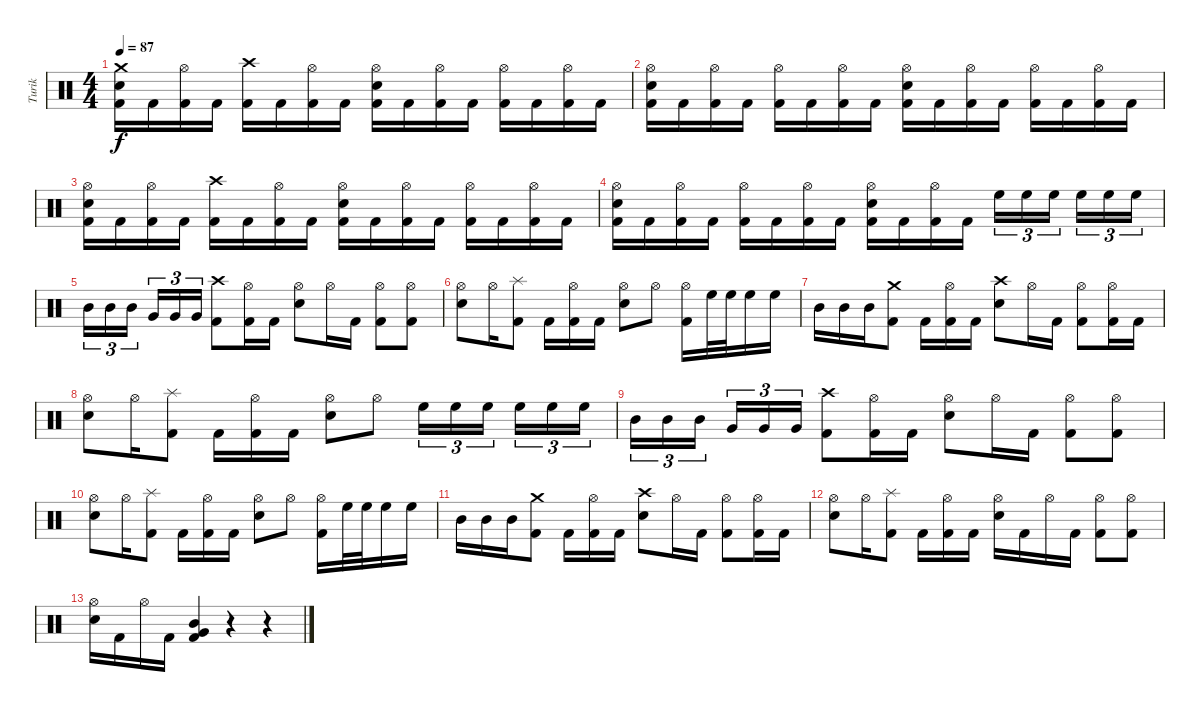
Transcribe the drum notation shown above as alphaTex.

\track ("Turik" "Turik") {instrument percussion}
\staff {score}
\articulation defaults
\ts (4 4)
\tempo 87
\clef neutral
\ks c
("Crash medium (hit)" "Snare (hit) 2" "Kick (hit) 2").16{dy f} "Kick (hit) 2".16 ("Hi-Hat (open)" "Kick (hit) 2").16 "Kick (hit) 2".16 ("Crash high (hit)" "Kick (hit) 2").16 "Kick (hit) 2".16 ("Hi-Hat (open)" "Kick (hit) 2").16 "Kick (hit) 2".16 ("Hi-Hat (open)" "Snare (hit) 2" "Kick (hit) 2").16 "Kick (hit) 2".16 ("Hi-Hat (open)" "Kick (hit) 2").16 "Kick (hit) 2".16 ("Hi-Hat (open)" "Kick (hit) 2").16 "Kick (hit) 2".16 ("Hi-Hat (open)" "Kick (hit) 2").16 "Kick (hit) 2".16 |
("Hi-Hat (open)" "Snare (hit) 2" "Kick (hit) 2").16 "Kick (hit) 2".16 ("Hi-Hat (open)" "Kick (hit) 2").16 "Kick (hit) 2".16 ("Hi-Hat (open)" "Kick (hit) 2").16 "Kick (hit) 2".16 ("Hi-Hat (open)" "Kick (hit) 2").16 "Kick (hit) 2".16 ("Hi-Hat (open)" "Snare (hit) 2" "Kick (hit) 2").16 "Kick (hit) 2".16 ("Hi-Hat (open)" "Kick (hit) 2").16 "Kick (hit) 2".16 ("Hi-Hat (open)" "Kick (hit) 2").16 "Kick (hit) 2".16 ("Hi-Hat (open)" "Kick (hit) 2").16 "Kick (hit) 2".16 |
("Hi-Hat (open)" "Snare (hit) 2" "Kick (hit) 2").16 "Kick (hit) 2".16 ("Hi-Hat (open)" "Kick (hit) 2").16 "Kick (hit) 2".16 ("Crash high (hit)" "Kick (hit) 2").16 "Kick (hit) 2".16 ("Hi-Hat (open)" "Kick (hit) 2").16 "Kick (hit) 2".16 ("Hi-Hat (open)" "Snare (hit) 2" "Kick (hit) 2").16 "Kick (hit) 2".16 ("Hi-Hat (open)" "Kick (hit) 2").16 "Kick (hit) 2".16 ("Hi-Hat (open)" "Kick (hit) 2").16 "Kick (hit) 2".16 ("Hi-Hat (open)" "Kick (hit) 2").16 "Kick (hit) 2".16 |
("Hi-Hat (open)" "Snare (hit) 2" "Kick (hit) 2").16 "Kick (hit) 2".16 ("Hi-Hat (open)" "Kick (hit) 2").16 "Kick (hit) 2".16 ("Hi-Hat (open)" "Kick (hit) 2").16 "Kick (hit) 2".16 ("Hi-Hat (open)" "Kick (hit) 2").16 "Kick (hit) 2".16 ("Hi-Hat (open)" "Snare (hit) 2" "Kick (hit) 2").16 "Kick (hit) 2".16 ("Hi-Hat (open)" "Kick (hit) 2").16 "Kick (hit) 2".16 "High Floor Tom (hit)".16{tu (3 2)} "High Floor Tom (hit)".16{tu (3 2)} "High Floor Tom (hit)".16{tu (3 2) beam splitsecondary} "High Floor Tom (hit)".16{tu (3 2)} "High Floor Tom (hit)".16{tu (3 2)} "High Floor Tom (hit)".16{tu (3 2)} |
"Mid Tom (hit)".16{tu (3 2)} "Mid Tom (hit)".16{tu (3 2)} "Mid Tom (hit)".16{tu (3 2) beam splitsecondary} "Very Low Tom (hit)".16{tu (3 2)} "Very Low Tom (hit)".16{tu (3 2)} "Very Low Tom (hit)".16{tu (3 2)} ("Crash high (hit)" "Kick (hit) 2").8 ("Hi-Hat (open)" "Kick (hit) 2").16 "Kick (hit) 2".16 ("Hi-Hat (open)" "Snare (hit) 2").8 "Hi-Hat (open)".16 "Kick (hit) 2".16 ("Hi-Hat (open)" "Kick (hit) 2").8 ("Hi-Hat (open)" "Kick (hit) 2").8 |
("Hi-Hat (open)" "Snare (hit) 2").8 "Hi-Hat (open)".16 ("Splash (hit)" "Kick (hit) 2").8 "Kick (hit) 2".16 ("Hi-Hat (open)" "Kick (hit) 2").16 "Kick (hit) 2".16 ("Hi-Hat (open)" "Snare (hit) 2").8 "Hi-Hat (open)".8 ("Hi-Hat (open)" "Kick (hit) 2").16 "High Floor Tom (hit)".32 "High Floor Tom (hit)".32 "High Floor Tom (hit)".16 "High Floor Tom (hit)".16 |
"Mid Tom (hit)".16 "Mid Tom (hit)".16 "Mid Tom (hit)".16 ("Crash medium (hit)" "Kick (hit) 2").8 "Kick (hit) 2".16 ("Hi-Hat (open)" "Kick (hit) 2").16 "Kick (hit) 2".16 ("Crash high (hit)" "Snare (hit) 2").8 "Hi-Hat (open)".16 "Kick (hit) 2".16 ("Hi-Hat (open)" "Kick (hit) 2").8 ("Hi-Hat (open)" "Kick (hit) 2").16 "Kick (hit) 2".16 |
("Hi-Hat (open)" "Snare (hit) 2").8 "Hi-Hat (open)".16 ("Splash (hit)" "Kick (hit) 2").8 "Kick (hit) 2".16 ("Hi-Hat (open)" "Kick (hit) 2").16 "Kick (hit) 2".16 ("Hi-Hat (open)" "Snare (hit) 2").8 "Hi-Hat (open)".8 "High Floor Tom (hit)".16{tu (3 2)} "High Floor Tom (hit)".16{tu (3 2)} "High Floor Tom (hit)".16{tu (3 2) beam splitsecondary} "High Floor Tom (hit)".16{tu (3 2)} "High Floor Tom (hit)".16{tu (3 2)} "High Floor Tom (hit)".16{tu (3 2)} |
"Mid Tom (hit)".16{tu (3 2)} "Mid Tom (hit)".16{tu (3 2)} "Mid Tom (hit)".16{tu (3 2) beam splitsecondary} "Very Low Tom (hit)".16{tu (3 2)} "Very Low Tom (hit)".16{tu (3 2)} "Very Low Tom (hit)".16{tu (3 2)} ("Crash high (hit)" "Kick (hit) 2").8 ("Hi-Hat (open)" "Kick (hit) 2").16 "Kick (hit) 2".16 ("Hi-Hat (open)" "Snare (hit) 2").8 "Hi-Hat (open)".16 "Kick (hit) 2".16 ("Hi-Hat (open)" "Kick (hit) 2").8 ("Hi-Hat (open)" "Kick (hit) 2").8 |
("Hi-Hat (open)" "Snare (hit) 2").8 "Hi-Hat (open)".16 ("Splash (hit)" "Kick (hit) 2").8 "Kick (hit) 2".16 ("Hi-Hat (open)" "Kick (hit) 2").16 "Kick (hit) 2".16 ("Hi-Hat (open)" "Snare (hit) 2").8 "Hi-Hat (open)".8 ("Hi-Hat (open)" "Kick (hit) 2").16 "High Floor Tom (hit)".32 "High Floor Tom (hit)".32 "High Floor Tom (hit)".16 "High Floor Tom (hit)".16 |
"Mid Tom (hit)".16 "Mid Tom (hit)".16 "Mid Tom (hit)".16 ("Crash medium (hit)" "Kick (hit) 2").8 "Kick (hit) 2".16 ("Hi-Hat (open)" "Kick (hit) 2").16 "Kick (hit) 2".16 ("Crash high (hit)" "Snare (hit) 2").8 "Hi-Hat (open)".16 "Kick (hit) 2".16 ("Hi-Hat (open)" "Kick (hit) 2").8 ("Hi-Hat (open)" "Kick (hit) 2").16 "Kick (hit) 2".16 |
("Hi-Hat (open)" "Snare (hit) 2").8 "Hi-Hat (open)".16 ("Splash (hit)" "Kick (hit) 2").8 "Kick (hit) 2".16 ("Hi-Hat (open)" "Kick (hit) 2").16 "Kick (hit) 2".16 ("Hi-Hat (open)" "Snare (hit) 2").16 "Kick (hit) 2".16 "Hi-Hat (open)".16 "Kick (hit) 2".16 ("Hi-Hat (open)" "Kick (hit) 2").8 ("Hi-Hat (open)" "Kick (hit) 2").8 |
("Hi-Hat (open)" "Snare (hit) 2").16 "Kick (hit) 2".16 "Hi-Hat (open)".16 "Kick (hit) 2".16 ("Mid Tom (hit)" "Very Low Tom (hit)" "Kick (hit) 2").4 r.4 r.4
